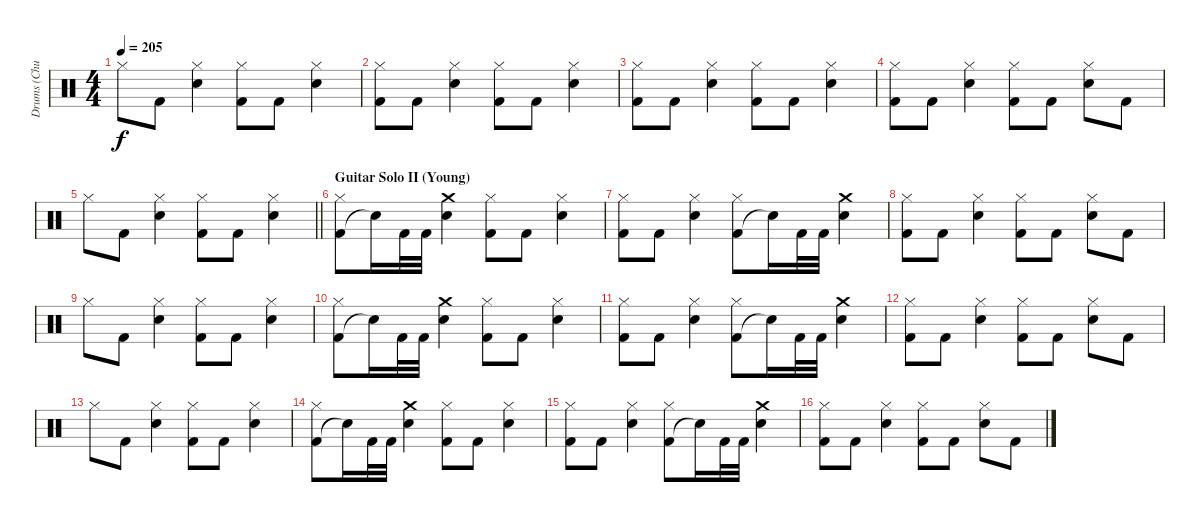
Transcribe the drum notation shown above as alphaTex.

\track ("Drums (Chuck Behler)" "Drums (Chu") {instrument percussion}
\staff {score}
\articulation defaults
\ts (4 4)
\tempo 205
\clef neutral
\ks c "Hi-Hat (closed)".8{dy f} "Kick (hit) 2".8
("Electric Snare (hit)" "Hi-Hat (closed)").4 ("Kick (hit) 2" "Hi-Hat (closed)").8 "Kick (hit) 2".8 ("Electric Snare (hit)" "Hi-Hat (closed)").4 |
("Kick (hit) 2" "Hi-Hat (closed)").8 "Kick (hit) 2".8 ("Electric Snare (hit)" "Hi-Hat (closed)").4 ("Kick (hit) 2" "Hi-Hat (closed)").8 "Kick (hit) 2".8 ("Electric Snare (hit)" "Hi-Hat (closed)").4 |
("Kick (hit) 2" "Hi-Hat (closed)").8 "Kick (hit) 2".8 ("Electric Snare (hit)" "Hi-Hat (closed)").4 ("Kick (hit) 2" "Hi-Hat (closed)").8 "Kick (hit) 2".8 ("Electric Snare (hit)" "Hi-Hat (closed)").4 |
("Kick (hit) 2" "Hi-Hat (closed)").8 "Kick (hit) 2".8 ("Electric Snare (hit)" "Hi-Hat (closed)").4 ("Kick (hit) 2" "Hi-Hat (closed)").8 "Kick (hit) 2".8 ("Electric Snare (hit)" "Hi-Hat (closed)").8 "Kick (hit) 2".8 |
\barLineRight lightlight "Hi-Hat (closed)".8 "Kick (hit) 2".8
("Electric Snare (hit)" "Hi-Hat (closed)").4 ("Kick (hit) 2" "Hi-Hat (closed)").8 "Kick (hit) 2".8 ("Electric Snare (hit)" "Hi-Hat (closed)").4 |
\section ("" "Guitar Solo II (Young)")
("Kick (hit) 2" "Hi-Hat (closed)").8 "Snare (hit)"{t}.16 "Kick (hit) 2".32 "Kick (hit) 2".32 ("Electric Snare (hit)" "Crash medium (hit)").4 ("Kick (hit) 2" "Hi-Hat (closed)").8 "Kick (hit) 2".8 ("Electric Snare (hit)" "Hi-Hat (closed)").4 |
("Kick (hit) 2" "Hi-Hat (closed)").8 "Kick (hit) 2".8 ("Electric Snare (hit)" "Hi-Hat (closed)").4 ("Kick (hit) 2" "Hi-Hat (closed)").8 "Snare (hit)"{t}.16 "Kick (hit) 2".32 "Kick (hit) 2".32 ("Electric Snare (hit)" "Crash medium (hit)").4 |
("Kick (hit) 2" "Hi-Hat (closed)").8 "Kick (hit) 2".8 ("Electric Snare (hit)" "Hi-Hat (closed)").4 ("Kick (hit) 2" "Hi-Hat (closed)").8 "Kick (hit) 2".8 ("Electric Snare (hit)" "Hi-Hat (closed)").8 "Kick (hit) 2".8 |
"Hi-Hat (closed)".8 "Kick (hit) 2".8 ("Electric Snare (hit)" "Hi-Hat (closed)").4 ("Kick (hit) 2" "Hi-Hat (closed)").8 "Kick (hit) 2".8 ("Electric Snare (hit)" "Hi-Hat (closed)").4 |
("Kick (hit) 2" "Hi-Hat (closed)").8 "Snare (hit)"{t}.16 "Kick (hit) 2".32 "Kick (hit) 2".32 ("Electric Snare (hit)" "Crash medium (hit)").4 ("Kick (hit) 2" "Hi-Hat (closed)").8 "Kick (hit) 2".8 ("Electric Snare (hit)" "Hi-Hat (closed)").4 |
("Kick (hit) 2" "Hi-Hat (closed)").8 "Kick (hit) 2".8 ("Electric Snare (hit)" "Hi-Hat (closed)").4 ("Kick (hit) 2" "Hi-Hat (closed)").8 "Snare (hit)"{t}.16 "Kick (hit) 2".32 "Kick (hit) 2".32 ("Electric Snare (hit)" "Crash medium (hit)").4 |
("Kick (hit) 2" "Hi-Hat (closed)").8 "Kick (hit) 2".8 ("Electric Snare (hit)" "Hi-Hat (closed)").4 ("Kick (hit) 2" "Hi-Hat (closed)").8 "Kick (hit) 2".8 ("Electric Snare (hit)" "Hi-Hat (closed)").8 "Kick (hit) 2".8 |
"Hi-Hat (closed)".8 "Kick (hit) 2".8 ("Electric Snare (hit)" "Hi-Hat (closed)").4 ("Kick (hit) 2" "Hi-Hat (closed)").8 "Kick (hit) 2".8 ("Electric Snare (hit)" "Hi-Hat (closed)").4 |
("Kick (hit) 2" "Hi-Hat (closed)").8 "Snare (hit)"{t}.16 "Kick (hit) 2".32 "Kick (hit) 2".32 ("Electric Snare (hit)" "Crash medium (hit)").4 ("Kick (hit) 2" "Hi-Hat (closed)").8 "Kick (hit) 2".8 ("Electric Snare (hit)" "Hi-Hat (closed)").4 |
("Kick (hit) 2" "Hi-Hat (closed)").8 "Kick (hit) 2".8 ("Electric Snare (hit)" "Hi-Hat (closed)").4 ("Kick (hit) 2" "Hi-Hat (closed)").8 "Snare (hit)"{t}.16 "Kick (hit) 2".32 "Kick (hit) 2".32 ("Electric Snare (hit)" "Crash medium (hit)").4 |
("Kick (hit) 2" "Hi-Hat (closed)").8 "Kick (hit) 2".8 ("Electric Snare (hit)" "Hi-Hat (closed)").4 ("Kick (hit) 2" "Hi-Hat (closed)").8 "Kick (hit) 2".8 ("Electric Snare (hit)" "Hi-Hat (closed)").8 "Kick (hit) 2".8
